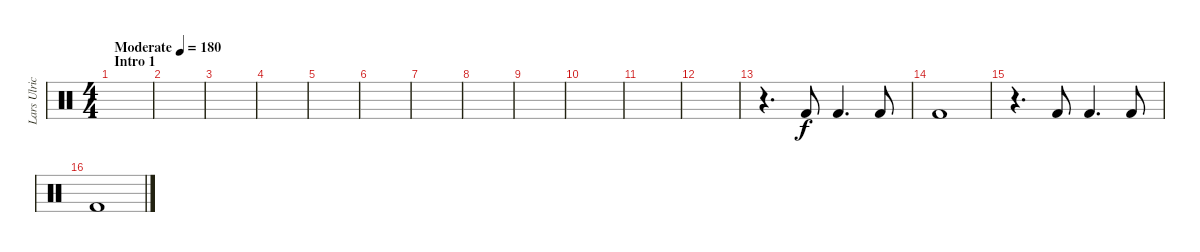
\track ("Lars Ulrich" "Lars Ulric") {instrument percussion}
\staff {score}
\articulation defaults
\ts (4 4)
\section ("" "Intro 1")
\tempo (180 "Moderate")
\clef neutral
\ks c
|
|
|
|
|
|
|
|
|
|
|
|
r.4{d} "Kick (hit) 2".8 "Kick (hit) 2".4{d} "Kick (hit) 2".8 |
"Kick (hit) 2".1 |
r.4{d} "Kick (hit) 2".8 "Kick (hit) 2".4{d} "Kick (hit) 2".8 |
"Kick (hit) 2".1
